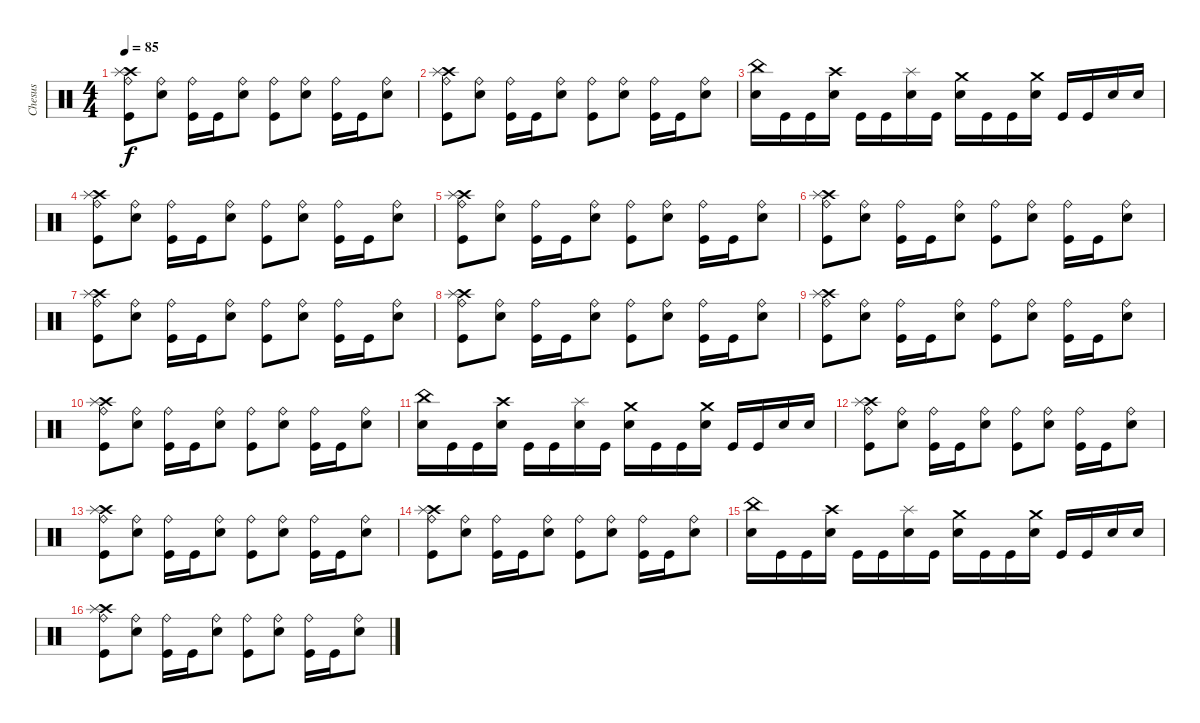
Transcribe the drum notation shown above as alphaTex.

\track ("Chesus" "Chesus") {instrument percussion}
\staff {score}
\articulation defaults
\ts (4 4)
\tempo 85
\clef neutral
\ks c
("Crash high (hit)" "Splash (hit)" "Ride (bell)" "Kick (hit)").8{dy f} ("Ride (bell)" "Snare (hit) 2").8 ("Ride (bell)" "Kick (hit)").16 "Kick (hit)".16 ("Ride (bell)" "Snare (hit) 2").8 ("Ride (bell)" "Kick (hit)").8 ("Ride (bell)" "Snare (hit) 2").8 ("Ride (bell)" "Kick (hit)").16 "Kick (hit)".16 ("Ride (bell)" "Snare (hit) 2").8 |
("Crash high (hit)" "Splash (hit)" "Ride (bell)" "Kick (hit)").8 ("Ride (bell)" "Snare (hit) 2").8 ("Ride (bell)" "Kick (hit)").16 "Kick (hit)".16 ("Ride (bell)" "Snare (hit) 2").8 ("Ride (bell)" "Kick (hit)").8 ("Ride (bell)" "Snare (hit) 2").8 ("Ride (bell)" "Kick (hit)").16 "Kick (hit)".16 ("Ride (bell)" "Snare (hit) 2").8 |
("China (hit)" "Snare (hit) 2").16 "Kick (hit)".16 "Kick (hit)".16 ("Crash high (hit)" "Snare (hit) 2").16 "Kick (hit)".16 "Kick (hit)".16 ("Splash (hit)" "Snare (hit) 2").16 "Kick (hit)".16 ("Crash medium (hit)" "Snare (hit) 2").16 "Kick (hit)".16 "Kick (hit)".16 ("Crash medium (hit)" "Snare (hit) 2").16 "Kick (hit)".16 "Kick (hit)".16 "Snare (hit) 2".16 "Snare (hit) 2".16 |
("Crash high (hit)" "Splash (hit)" "Ride (bell)" "Kick (hit)").8 ("Ride (bell)" "Snare (hit) 2").8 ("Ride (bell)" "Kick (hit)").16 "Kick (hit)".16 ("Ride (bell)" "Snare (hit) 2").8 ("Ride (bell)" "Kick (hit)").8 ("Ride (bell)" "Snare (hit) 2").8 ("Ride (bell)" "Kick (hit)").16 "Kick (hit)".16 ("Ride (bell)" "Snare (hit) 2").8 |
("Crash high (hit)" "Splash (hit)" "Ride (bell)" "Kick (hit)").8 ("Ride (bell)" "Snare (hit) 2").8 ("Ride (bell)" "Kick (hit)").16 "Kick (hit)".16 ("Ride (bell)" "Snare (hit) 2").8 ("Ride (bell)" "Kick (hit)").8 ("Ride (bell)" "Snare (hit) 2").8 ("Ride (bell)" "Kick (hit)").16 "Kick (hit)".16 ("Ride (bell)" "Snare (hit) 2").8 |
("Crash high (hit)" "Splash (hit)" "Ride (bell)" "Kick (hit)").8 ("Ride (bell)" "Snare (hit) 2").8 ("Ride (bell)" "Kick (hit)").16 "Kick (hit)".16 ("Ride (bell)" "Snare (hit) 2").8 ("Ride (bell)" "Kick (hit)").8 ("Ride (bell)" "Snare (hit) 2").8 ("Ride (bell)" "Kick (hit)").16 "Kick (hit)".16 ("Ride (bell)" "Snare (hit) 2").8 |
("Crash high (hit)" "Splash (hit)" "Ride (bell)" "Kick (hit)").8 ("Ride (bell)" "Snare (hit) 2").8 ("Ride (bell)" "Kick (hit)").16 "Kick (hit)".16 ("Ride (bell)" "Snare (hit) 2").8 ("Ride (bell)" "Kick (hit)").8 ("Ride (bell)" "Snare (hit) 2").8 ("Ride (bell)" "Kick (hit)").16 "Kick (hit)".16 ("Ride (bell)" "Snare (hit) 2").8 |
("Crash high (hit)" "Splash (hit)" "Ride (bell)" "Kick (hit)").8 ("Ride (bell)" "Snare (hit) 2").8 ("Ride (bell)" "Kick (hit)").16 "Kick (hit)".16 ("Ride (bell)" "Snare (hit) 2").8 ("Ride (bell)" "Kick (hit)").8 ("Ride (bell)" "Snare (hit) 2").8 ("Ride (bell)" "Kick (hit)").16 "Kick (hit)".16 ("Ride (bell)" "Snare (hit) 2").8 |
("Crash high (hit)" "Splash (hit)" "Ride (bell)" "Kick (hit)").8 ("Ride (bell)" "Snare (hit) 2").8 ("Ride (bell)" "Kick (hit)").16 "Kick (hit)".16 ("Ride (bell)" "Snare (hit) 2").8 ("Ride (bell)" "Kick (hit)").8 ("Ride (bell)" "Snare (hit) 2").8 ("Ride (bell)" "Kick (hit)").16 "Kick (hit)".16 ("Ride (bell)" "Snare (hit) 2").8 |
("Crash high (hit)" "Splash (hit)" "Ride (bell)" "Kick (hit)").8 ("Ride (bell)" "Snare (hit) 2").8 ("Ride (bell)" "Kick (hit)").16 "Kick (hit)".16 ("Ride (bell)" "Snare (hit) 2").8 ("Ride (bell)" "Kick (hit)").8 ("Ride (bell)" "Snare (hit) 2").8 ("Ride (bell)" "Kick (hit)").16 "Kick (hit)".16 ("Ride (bell)" "Snare (hit) 2").8 |
("China (hit)" "Snare (hit) 2").16 "Kick (hit)".16 "Kick (hit)".16 ("Crash high (hit)" "Snare (hit) 2").16 "Kick (hit)".16 "Kick (hit)".16 ("Splash (hit)" "Snare (hit) 2").16 "Kick (hit)".16 ("Crash medium (hit)" "Snare (hit) 2").16 "Kick (hit)".16 "Kick (hit)".16 ("Crash medium (hit)" "Snare (hit) 2").16 "Kick (hit)".16 "Kick (hit)".16 "Snare (hit) 2".16 "Snare (hit) 2".16 |
("Crash high (hit)" "Splash (hit)" "Ride (bell)" "Kick (hit)").8 ("Ride (bell)" "Snare (hit) 2").8 ("Ride (bell)" "Kick (hit)").16 "Kick (hit)".16 ("Ride (bell)" "Snare (hit) 2").8 ("Ride (bell)" "Kick (hit)").8 ("Ride (bell)" "Snare (hit) 2").8 ("Ride (bell)" "Kick (hit)").16 "Kick (hit)".16 ("Ride (bell)" "Snare (hit) 2").8 |
("Crash high (hit)" "Splash (hit)" "Ride (bell)" "Kick (hit)").8 ("Ride (bell)" "Snare (hit) 2").8 ("Ride (bell)" "Kick (hit)").16 "Kick (hit)".16 ("Ride (bell)" "Snare (hit) 2").8 ("Ride (bell)" "Kick (hit)").8 ("Ride (bell)" "Snare (hit) 2").8 ("Ride (bell)" "Kick (hit)").16 "Kick (hit)".16 ("Ride (bell)" "Snare (hit) 2").8 |
("Crash high (hit)" "Splash (hit)" "Ride (bell)" "Kick (hit)").8 ("Ride (bell)" "Snare (hit) 2").8 ("Ride (bell)" "Kick (hit)").16 "Kick (hit)".16 ("Ride (bell)" "Snare (hit) 2").8 ("Ride (bell)" "Kick (hit)").8 ("Ride (bell)" "Snare (hit) 2").8 ("Ride (bell)" "Kick (hit)").16 "Kick (hit)".16 ("Ride (bell)" "Snare (hit) 2").8 |
("China (hit)" "Snare (hit) 2").16 "Kick (hit)".16 "Kick (hit)".16 ("Crash high (hit)" "Snare (hit) 2").16 "Kick (hit)".16 "Kick (hit)".16 ("Splash (hit)" "Snare (hit) 2").16 "Kick (hit)".16 ("Crash medium (hit)" "Snare (hit) 2").16 "Kick (hit)".16 "Kick (hit)".16 ("Crash medium (hit)" "Snare (hit) 2").16 "Kick (hit)".16 "Kick (hit)".16 "Snare (hit) 2".16 "Snare (hit) 2".16 |
("Crash high (hit)" "Splash (hit)" "Ride (bell)" "Kick (hit)").8 ("Ride (bell)" "Snare (hit) 2").8 ("Ride (bell)" "Kick (hit)").16 "Kick (hit)".16 ("Ride (bell)" "Snare (hit) 2").8 ("Ride (bell)" "Kick (hit)").8 ("Ride (bell)" "Snare (hit) 2").8 ("Ride (bell)" "Kick (hit)").16 "Kick (hit)".16 ("Ride (bell)" "Snare (hit) 2").8
